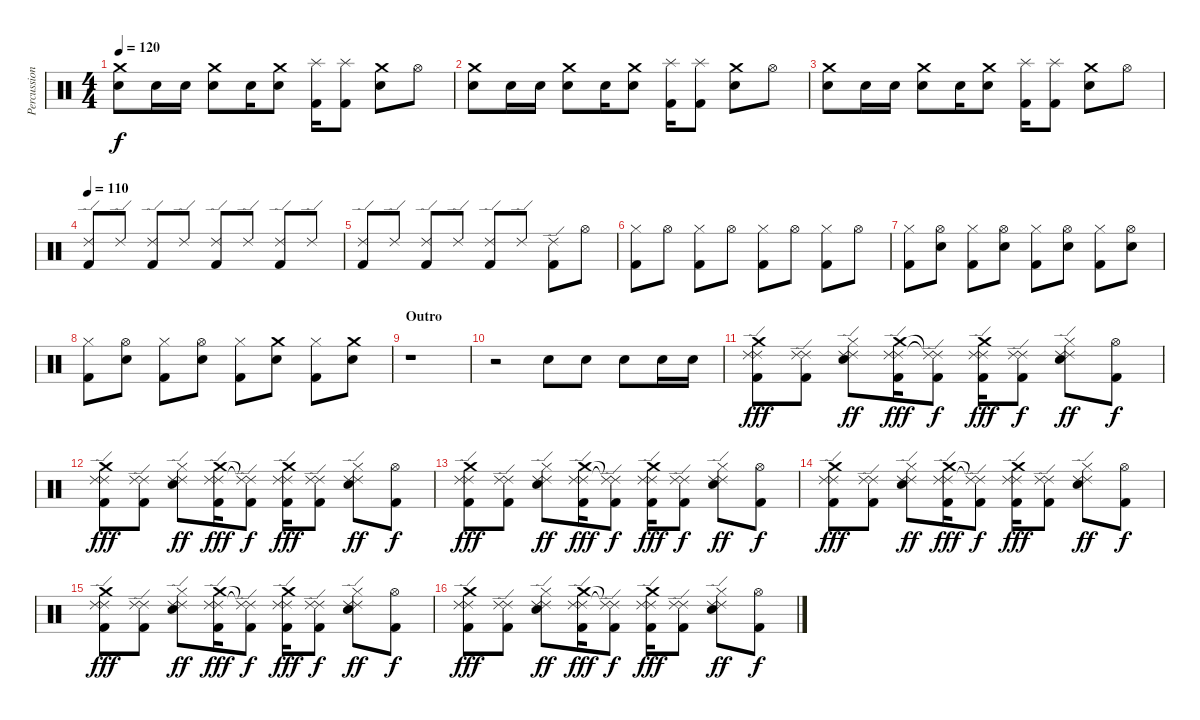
\track ("Percussions" "Percussion") {instrument percussion}
\staff {score}
\articulation defaults
\ts (4 4)
\tempo 120
\clef neutral
\ks c
("Crash medium (hit)" "Snare (hit) 2").8{dy f} "Snare (hit) 2".16 "Snare (hit) 2".16 ("Crash medium (hit)" "Snare (hit) 2").8 "Snare (hit) 2".16 ("Crash medium (hit)" "Snare (hit) 2").8 ("Splash (hit)" "Kick (hit) 2").16 ("Splash (hit)" "Kick (hit) 2").8 ("Crash medium (hit)" "Snare (hit) 2").8 "Hi-Hat (open)".8 |
("Crash medium (hit)" "Snare (hit) 2").8 "Snare (hit) 2".16 "Snare (hit) 2".16 ("Crash medium (hit)" "Snare (hit) 2").8 "Snare (hit) 2".16 ("Crash medium (hit)" "Snare (hit) 2").8 ("Splash (hit)" "Kick (hit) 2").16 ("Splash (hit)" "Kick (hit) 2").8 ("Crash medium (hit)" "Snare (hit) 2").8 "Hi-Hat (open)".8 |
("Crash medium (hit)" "Snare (hit) 2").8 "Snare (hit) 2".16 "Snare (hit) 2".16 ("Crash medium (hit)" "Snare (hit) 2").8 "Snare (hit) 2".16 ("Crash medium (hit)" "Snare (hit) 2").8 ("Splash (hit)" "Kick (hit) 2").16 ("Splash (hit)" "Kick (hit) 2").8 ("Crash medium (hit)" "Snare (hit) 2").8 "Hi-Hat (open)".8 |
\tempo 110
("Ride (edge) 2" "Kick (hit) 2").8 "Ride (edge) 2".8 ("Ride (edge) 2" "Kick (hit) 2").8 "Ride (edge) 2".8 ("Ride (edge) 2" "Kick (hit) 2").8 "Ride (edge) 2".8 ("Ride (edge) 2" "Kick (hit) 2").8 "Ride (edge) 2".8 |
("Ride (edge) 2" "Kick (hit) 2").8 "Ride (edge) 2".8 ("Ride (edge) 2" "Kick (hit) 2").8 "Ride (edge) 2".8 ("Ride (edge) 2" "Kick (hit) 2").8 "Ride (edge) 2".8 ("Ride (edge) 2" "Kick (hit) 2").8 "Hi-Hat (open)".8 |
("Hi-Hat (closed)" "Kick (hit) 2").8 "Hi-Hat (open)".8 ("Hi-Hat (closed)" "Kick (hit) 2").8 "Hi-Hat (open)".8 ("Hi-Hat (closed)" "Kick (hit) 2").8 "Hi-Hat (open)".8 ("Hi-Hat (closed)" "Kick (hit) 2").8 "Hi-Hat (open)".8 |
("Hi-Hat (closed)" "Kick (hit) 2").8 ("Hi-Hat (open)" "Snare (hit) 2").8 ("Hi-Hat (closed)" "Kick (hit) 2").8 ("Hi-Hat (open)" "Snare (hit) 2").8 ("Hi-Hat (closed)" "Kick (hit) 2").8 ("Hi-Hat (open)" "Snare (hit) 2").8 ("Hi-Hat (closed)" "Kick (hit) 2").8 ("Hi-Hat (open)" "Snare (hit) 2").8 |
("Hi-Hat (closed)" "Kick (hit) 2").8 ("Hi-Hat (open)" "Snare (hit) 2").8 ("Hi-Hat (closed)" "Kick (hit) 2").8 ("Hi-Hat (open)" "Snare (hit) 2").8 ("Hi-Hat (closed)" "Kick (hit) 2").8 ("Crash medium (hit)" "Snare (hit) 2").8 ("Hi-Hat (closed)" "Kick (hit) 2").8 ("Crash medium (hit)" "Snare (hit) 2").8 |
\section ("" "Outro")
r.1 |
r.2 "Snare (hit) 2".8 "Snare (hit) 2".8 "Snare (hit) 2".8 "Snare (hit) 2".16 "Snare (hit) 2".16 |
("Crash medium (hit)" "Ride (edge) 2" "Ride (edge) 2" "Kick (hit) 2").8{dy fff} ("Ride (edge) 2" "Ride (edge) 2" "Kick (hit) 2").8 ("Hi-Hat (closed)" "Ride (edge) 2" "Ride (edge) 2" "Snare (hit) 2").8{dy ff} ("Crash medium (hit)" "Ride (edge) 2" "Ride (edge) 2" "Kick (hit) 2").16{dy fff} ("Ride (edge) 2"{t} "Ride (edge) 2"{t} "Kick (hit) 2").8{dy f} ("Crash medium (hit)" "Ride (edge) 2" "Ride (edge) 2" "Kick (hit) 2").16{dy fff} ("Ride (edge) 2" "Ride (edge) 2" "Kick (hit) 2").8{dy f} ("Hi-Hat (closed)" "Ride (edge) 2" "Ride (edge) 2" "Snare (hit) 2").8{dy ff} ("Hi-Hat (open)" "Kick (hit) 2").8{dy f} |
("Crash medium (hit)" "Ride (edge) 2" "Ride (edge) 2" "Kick (hit) 2").8{dy fff} ("Ride (edge) 2" "Ride (edge) 2" "Kick (hit) 2").8 ("Hi-Hat (closed)" "Ride (edge) 2" "Ride (edge) 2" "Snare (hit) 2").8{dy ff} ("Crash medium (hit)" "Ride (edge) 2" "Ride (edge) 2" "Kick (hit) 2").16{dy fff} ("Ride (edge) 2"{t} "Ride (edge) 2"{t} "Kick (hit) 2").8{dy f} ("Crash medium (hit)" "Ride (edge) 2" "Ride (edge) 2" "Kick (hit) 2").16{dy fff} ("Ride (edge) 2" "Ride (edge) 2" "Kick (hit) 2").8 ("Hi-Hat (closed)" "Ride (edge) 2" "Ride (edge) 2" "Snare (hit) 2").8{dy ff} ("Hi-Hat (open)" "Kick (hit) 2").8{dy f} |
("Crash medium (hit)" "Ride (edge) 2" "Ride (edge) 2" "Kick (hit) 2").8{dy fff} ("Ride (edge) 2" "Ride (edge) 2" "Kick (hit) 2").8 ("Hi-Hat (closed)" "Ride (edge) 2" "Ride (edge) 2" "Snare (hit) 2").8{dy ff} ("Crash medium (hit)" "Ride (edge) 2" "Ride (edge) 2" "Kick (hit) 2").16{dy fff} ("Ride (edge) 2"{t} "Ride (edge) 2"{t} "Kick (hit) 2").8{dy f} ("Crash medium (hit)" "Ride (edge) 2" "Ride (edge) 2" "Kick (hit) 2").16{dy fff} ("Ride (edge) 2" "Ride (edge) 2" "Kick (hit) 2").8{dy f} ("Hi-Hat (closed)" "Ride (edge) 2" "Ride (edge) 2" "Snare (hit) 2").8{dy ff} ("Hi-Hat (open)" "Kick (hit) 2").8{dy f} |
("Crash medium (hit)" "Ride (edge) 2" "Ride (edge) 2" "Kick (hit) 2").8{dy fff} ("Ride (edge) 2" "Ride (edge) 2" "Kick (hit) 2").8 ("Hi-Hat (closed)" "Ride (edge) 2" "Ride (edge) 2" "Snare (hit) 2").8{dy ff} ("Crash medium (hit)" "Ride (edge) 2" "Ride (edge) 2" "Kick (hit) 2").16{dy fff} ("Ride (edge) 2"{t} "Ride (edge) 2"{t} "Kick (hit) 2").8{dy f} ("Crash medium (hit)" "Ride (edge) 2" "Ride (edge) 2" "Kick (hit) 2").16{dy fff} ("Ride (edge) 2" "Ride (edge) 2" "Kick (hit) 2").8 ("Hi-Hat (closed)" "Ride (edge) 2" "Ride (edge) 2" "Snare (hit) 2").8{dy ff} ("Hi-Hat (open)" "Kick (hit) 2").8{dy f} |
("Crash medium (hit)" "Ride (edge) 2" "Ride (edge) 2" "Kick (hit) 2").8{dy fff volume 6} ("Ride (edge) 2" "Ride (edge) 2" "Kick (hit) 2").8 ("Hi-Hat (closed)" "Ride (edge) 2" "Ride (edge) 2" "Snare (hit) 2").8{dy ff} ("Crash medium (hit)" "Ride (edge) 2" "Ride (edge) 2" "Kick (hit) 2").16{dy fff} ("Ride (edge) 2"{t} "Ride (edge) 2"{t} "Kick (hit) 2").8{dy f} ("Crash medium (hit)" "Ride (edge) 2" "Ride (edge) 2" "Kick (hit) 2").16{dy fff} ("Ride (edge) 2" "Ride (edge) 2" "Kick (hit) 2").8{dy f} ("Hi-Hat (closed)" "Ride (edge) 2" "Ride (edge) 2" "Snare (hit) 2").8{dy ff} ("Hi-Hat (open)" "Kick (hit) 2").8{dy f} |
("Crash medium (hit)" "Ride (edge) 2" "Ride (edge) 2" "Kick (hit) 2").8{dy fff} ("Ride (edge) 2" "Ride (edge) 2" "Kick (hit) 2").8 ("Hi-Hat (closed)" "Ride (edge) 2" "Ride (edge) 2" "Snare (hit) 2").8{dy ff} ("Crash medium (hit)" "Ride (edge) 2" "Ride (edge) 2" "Kick (hit) 2").16{dy fff} ("Ride (edge) 2"{t} "Ride (edge) 2"{t} "Kick (hit) 2").8{dy f} ("Crash medium (hit)" "Ride (edge) 2" "Ride (edge) 2" "Kick (hit) 2").16{dy fff} ("Ride (edge) 2" "Ride (edge) 2" "Kick (hit) 2").8 ("Hi-Hat (closed)" "Ride (edge) 2" "Ride (edge) 2" "Snare (hit) 2").8{dy ff} ("Hi-Hat (open)" "Kick (hit) 2").8{dy f}
